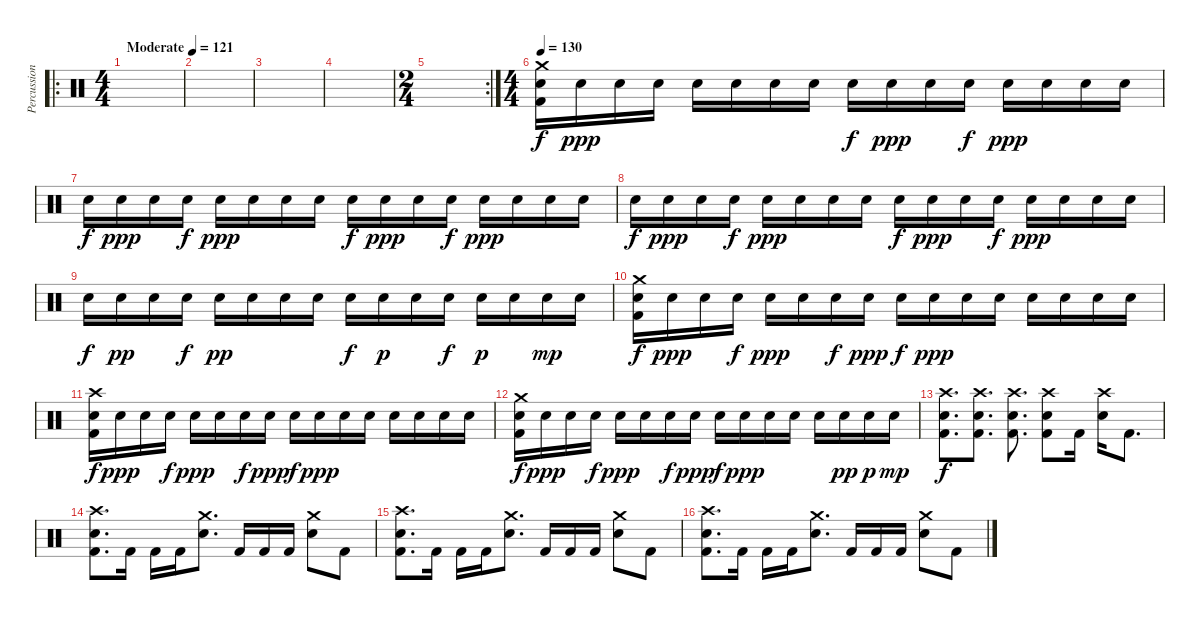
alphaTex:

\track ("Percussion" "Percussion") {instrument percussion}
\staff {score}
\articulation defaults
\ro
\ts (4 4)
\tempo (121 "Moderate")
\clef neutral
\ks c
|
|
|
|
\rc 2
\ts (2 4)
|
\ts (4 4)
\tempo 130
("Crash medium (hit)" "Electric Snare (hit)" "Kick (hit) 2").16 "Electric Snare (hit)".16{dy ppp} "Electric Snare (hit)".16 "Electric Snare (hit)".16 "Electric Snare (hit)".16 "Electric Snare (hit)".16 "Electric Snare (hit)".16 "Electric Snare (hit)".16 "Electric Snare (hit)".16{dy f} "Electric Snare (hit)".16{dy ppp} "Electric Snare (hit)".16 "Electric Snare (hit)".16{dy f} "Electric Snare (hit)".16{dy ppp} "Electric Snare (hit)".16 "Electric Snare (hit)".16 "Electric Snare (hit)".16 |
"Electric Snare (hit)".16{dy f} "Electric Snare (hit)".16{dy ppp} "Electric Snare (hit)".16 "Electric Snare (hit)".16{dy f} "Electric Snare (hit)".16{dy ppp} "Electric Snare (hit)".16 "Electric Snare (hit)".16 "Electric Snare (hit)".16 "Electric Snare (hit)".16{dy f} "Electric Snare (hit)".16{dy ppp} "Electric Snare (hit)".16 "Electric Snare (hit)".16{dy f} "Electric Snare (hit)".16{dy ppp} "Electric Snare (hit)".16 "Electric Snare (hit)".16 "Electric Snare (hit)".16 |
"Electric Snare (hit)".16{dy f} "Electric Snare (hit)".16{dy ppp} "Electric Snare (hit)".16 "Electric Snare (hit)".16{dy f} "Electric Snare (hit)".16{dy ppp} "Electric Snare (hit)".16 "Electric Snare (hit)".16 "Electric Snare (hit)".16 "Electric Snare (hit)".16{dy f} "Electric Snare (hit)".16{dy ppp} "Electric Snare (hit)".16 "Electric Snare (hit)".16{dy f} "Electric Snare (hit)".16{dy ppp} "Electric Snare (hit)".16 "Electric Snare (hit)".16 "Electric Snare (hit)".16 |
"Electric Snare (hit)".16{dy f} "Electric Snare (hit)".16{dy pp} "Electric Snare (hit)".16 "Electric Snare (hit)".16{dy f} "Electric Snare (hit)".16{dy pp} "Electric Snare (hit)".16 "Electric Snare (hit)".16 "Electric Snare (hit)".16 "Electric Snare (hit)".16{dy f} "Electric Snare (hit)".16{dy p} "Electric Snare (hit)".16 "Electric Snare (hit)".16{dy f} "Electric Snare (hit)".16{dy p} "Electric Snare (hit)".16 "Electric Snare (hit)".16{dy mp} "Electric Snare (hit)".16 |
("Crash medium (hit)" "Electric Snare (hit)" "Kick (hit) 2").16{dy f} "Electric Snare (hit)".16{dy ppp} "Electric Snare (hit)".16 "Electric Snare (hit)".16{dy f} "Electric Snare (hit)".16{dy ppp} "Electric Snare (hit)".16 "Electric Snare (hit)".16{dy f} "Electric Snare (hit)".16{dy ppp} "Electric Snare (hit)".16{dy f} "Electric Snare (hit)".16{dy ppp} "Electric Snare (hit)".16 "Electric Snare (hit)".16 "Electric Snare (hit)".16 "Electric Snare (hit)".16 "Electric Snare (hit)".16 "Electric Snare (hit)".16 |
("Crash high (hit)" "Electric Snare (hit)" "Kick (hit) 2").16{dy f} "Electric Snare (hit)".16{dy ppp} "Electric Snare (hit)".16 "Electric Snare (hit)".16{dy f} "Electric Snare (hit)".16{dy ppp} "Electric Snare (hit)".16 "Electric Snare (hit)".16{dy f} "Electric Snare (hit)".16{dy ppp} "Electric Snare (hit)".16{dy f} "Electric Snare (hit)".16{dy ppp} "Electric Snare (hit)".16 "Electric Snare (hit)".16 "Electric Snare (hit)".16 "Electric Snare (hit)".16 "Electric Snare (hit)".16 "Electric Snare (hit)".16 |
("Crash medium (hit)" "Electric Snare (hit)" "Kick (hit) 2").16{dy f} "Electric Snare (hit)".16{dy ppp} "Electric Snare (hit)".16 "Electric Snare (hit)".16{dy f} "Electric Snare (hit)".16{dy ppp} "Electric Snare (hit)".16 "Electric Snare (hit)".16{dy f} "Electric Snare (hit)".16{dy ppp} "Electric Snare (hit)".16{dy f} "Electric Snare (hit)".16{dy ppp} "Electric Snare (hit)".16 "Electric Snare (hit)".16 "Electric Snare (hit)".16 "Electric Snare (hit)".16{dy pp} "Electric Snare (hit)".16{dy p} "Electric Snare (hit)".16{dy mp} |
("Crash high (hit)" "Electric Snare (hit)" "Kick (hit) 2").8{d dy f} ("Crash high (hit)" "Electric Snare (hit)" "Kick (hit) 2").8{d} ("Crash high (hit)" "Electric Snare (hit)" "Kick (hit) 2").8{d} ("Crash high (hit)" "Electric Snare (hit)" "Kick (hit) 2").8 "Kick (hit) 2".16 ("Crash high (hit)" "Electric Snare (hit)").16 "Kick (hit) 2".8{d} |
("Crash high (hit)" "Electric Snare (hit)" "Kick (hit) 2").8{d} "Kick (hit) 2".16 "Kick (hit) 2".16 "Kick (hit) 2".16 ("Crash medium (hit)" "Electric Snare (hit)").8{d} "Kick (hit) 2".16 "Kick (hit) 2".16 "Kick (hit) 2".16 ("Crash medium (hit)" "Electric Snare (hit)").8 "Kick (hit) 2".8 |
("Crash high (hit)" "Electric Snare (hit)" "Kick (hit) 2").8{d} "Kick (hit) 2".16 "Kick (hit) 2".16 "Kick (hit) 2".16 ("Crash medium (hit)" "Electric Snare (hit)").8{d} "Kick (hit) 2".16 "Kick (hit) 2".16 "Kick (hit) 2".16 ("Crash medium (hit)" "Electric Snare (hit)").8 "Kick (hit) 2".8 |
("Crash high (hit)" "Electric Snare (hit)" "Kick (hit) 2").8{d} "Kick (hit) 2".16 "Kick (hit) 2".16 "Kick (hit) 2".16 ("Crash medium (hit)" "Electric Snare (hit)").8{d} "Kick (hit) 2".16 "Kick (hit) 2".16 "Kick (hit) 2".16 ("Crash medium (hit)" "Electric Snare (hit)").8 "Kick (hit) 2".8
